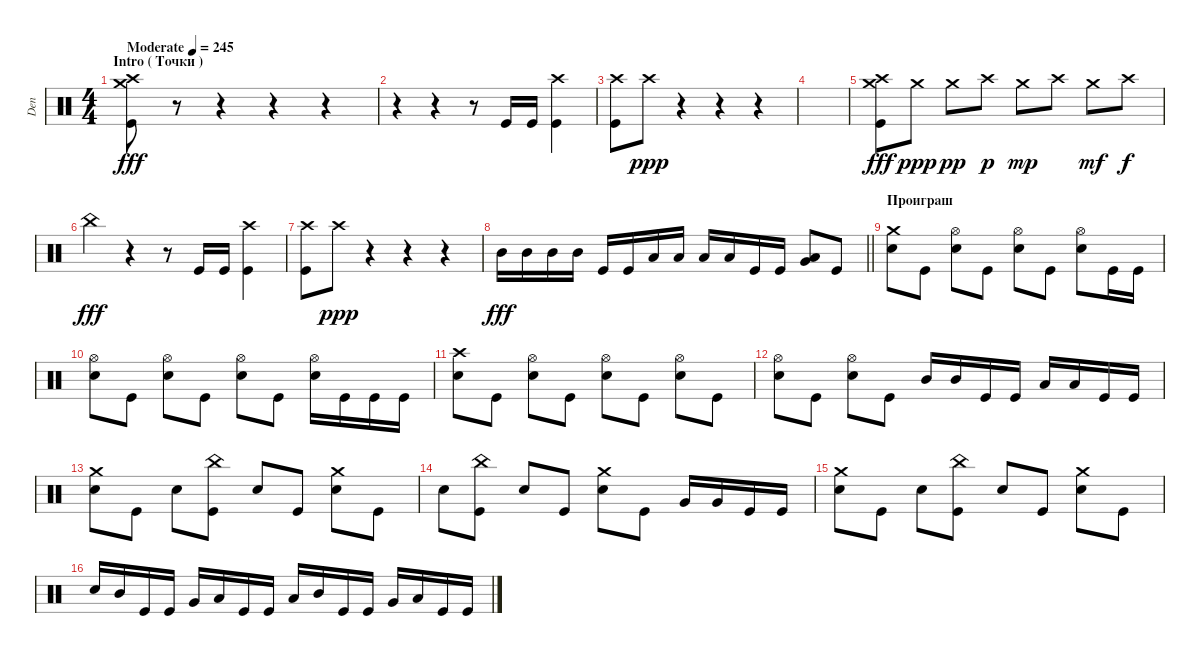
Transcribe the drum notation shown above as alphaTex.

\track ("Den" "Den") {instrument percussion}
\staff {score}
\articulation defaults
\ts (4 4)
\section ("" "Intro ( Точки )")
\tempo (245 "Moderate")
\clef neutral
\ks c
("Crash high (hit)" "Kick (hit)" "Crash medium (hit)").8{dy fff} r.8 r.4 r.4 r.4 |
r.4 r.4 r.8 "Kick (hit)".16 "Kick (hit)".16 ("Kick (hit)" "Crash high (hit)").4 |
("Crash high (hit)" "Kick (hit)").8 "Crash high (hit)".8{dy ppp} r.4 r.4 r.4 |
|
("Crash high (hit)" "Kick (hit)" "Crash medium (hit)").8{dy fff} "Crash medium (hit)".8{dy ppp} "Crash medium (hit)".8{dy pp} "Crash high (hit)".8{dy p} "Crash medium (hit)".8{dy mp} "Crash high (hit)".8 "Crash medium (hit)".8{dy mf} "Crash high (hit)".8{dy f} |
"China (hit)".4{dy fff} r.4 r.8 "Kick (hit)".16 "Kick (hit)".16 ("Kick (hit)" "Crash high (hit)").4 |
("Crash high (hit)" "Kick (hit)").8 "Crash high (hit)".8{dy ppp} r.4 r.4 r.4 |
\barLineRight lightlight "Mid Tom (hit)".16{dy fff} "Mid Tom (hit)".16 "Mid Tom (hit)".16 "Mid Tom (hit)".16 "Kick (hit)".16 "Kick (hit)".16 "Low Tom (hit)".16 "Low Tom (hit)".16 "Low Tom (hit)".16 "Low Tom (hit)".16 "Kick (hit)".16 "Kick (hit)".16
("Low Tom (hit)" "Very Low Tom (hit)").8 "Kick (hit)".8 |
\section ("" "Проиграш")
("Electric Snare (hit)" "Crash medium (hit)").8 "Kick (hit)".8 ("Electric Snare (hit)" "Hi-Hat (open)").8 "Kick (hit)".8 ("Electric Snare (hit)" "Hi-Hat (open)").8 "Kick (hit)".8 ("Electric Snare (hit)" "Hi-Hat (open)").8 "Kick (hit)".16 "Kick (hit)".16 |
("Electric Snare (hit)" "Hi-Hat (open)").8 "Kick (hit)".8 ("Electric Snare (hit)" "Hi-Hat (open)").8 "Kick (hit)".8 ("Electric Snare (hit)" "Hi-Hat (open)").8 "Kick (hit)".8 ("Electric Snare (hit)" "Hi-Hat (open)").16 "Kick (hit)".16 "Kick (hit)".16 "Kick (hit)".16 |
("Electric Snare (hit)" "Crash high (hit)").8 "Kick (hit)".8 ("Electric Snare (hit)" "Hi-Hat (open)").8 "Kick (hit)".8 ("Electric Snare (hit)" "Hi-Hat (open)").8 "Kick (hit)".8 ("Electric Snare (hit)" "Hi-Hat (open)").8 "Kick (hit)".8 |
("Electric Snare (hit)" "Hi-Hat (open)").8 "Kick (hit)".8 ("Electric Snare (hit)" "Hi-Hat (open)").8 "Kick (hit)".8 "Mid Tom (hit)".16 "Mid Tom (hit)".16 "Kick (hit)".16 "Kick (hit)".16 "Low Tom (hit)".16 "Low Tom (hit)".16 "Kick (hit)".16 "Kick (hit)".16 |
("Electric Snare (hit)" "Crash medium (hit)").8 "Kick (hit)".8 "Electric Snare (hit)".8 ("Kick (hit)" "China (hit)").8 "Electric Snare (hit)".8 "Kick (hit)".8 ("Electric Snare (hit)" "Crash medium (hit)").8 "Kick (hit)".8 |
"Electric Snare (hit)".8 ("Kick (hit)" "China (hit)").8 "Electric Snare (hit)".8 "Kick (hit)".8 ("Electric Snare (hit)" "Crash medium (hit)").8 "Kick (hit)".8 "Very Low Tom (hit)".16 "Very Low Tom (hit)".16 "Kick (hit)".16 "Kick (hit)".16 |
("Electric Snare (hit)" "Crash medium (hit)").8 "Kick (hit)".8 "Electric Snare (hit)".8 ("Kick (hit)" "China (hit)").8 "Electric Snare (hit)".8 "Kick (hit)".8 ("Electric Snare (hit)" "Crash medium (hit)").8 "Kick (hit)".8 |
"Electric Snare (hit)".16 "Mid Tom (hit)".16 "Kick (hit)".16 "Kick (hit)".16 "Very Low Tom (hit)".16 "Low Tom (hit)".16 "Kick (hit)".16 "Kick (hit)".16 "Low Tom (hit)".16 "Mid Tom (hit)".16 "Kick (hit)".16 "Kick (hit)".16 "Very Low Tom (hit)".16 "Low Tom (hit)".16 "Kick (hit)".16 "Kick (hit)".16
